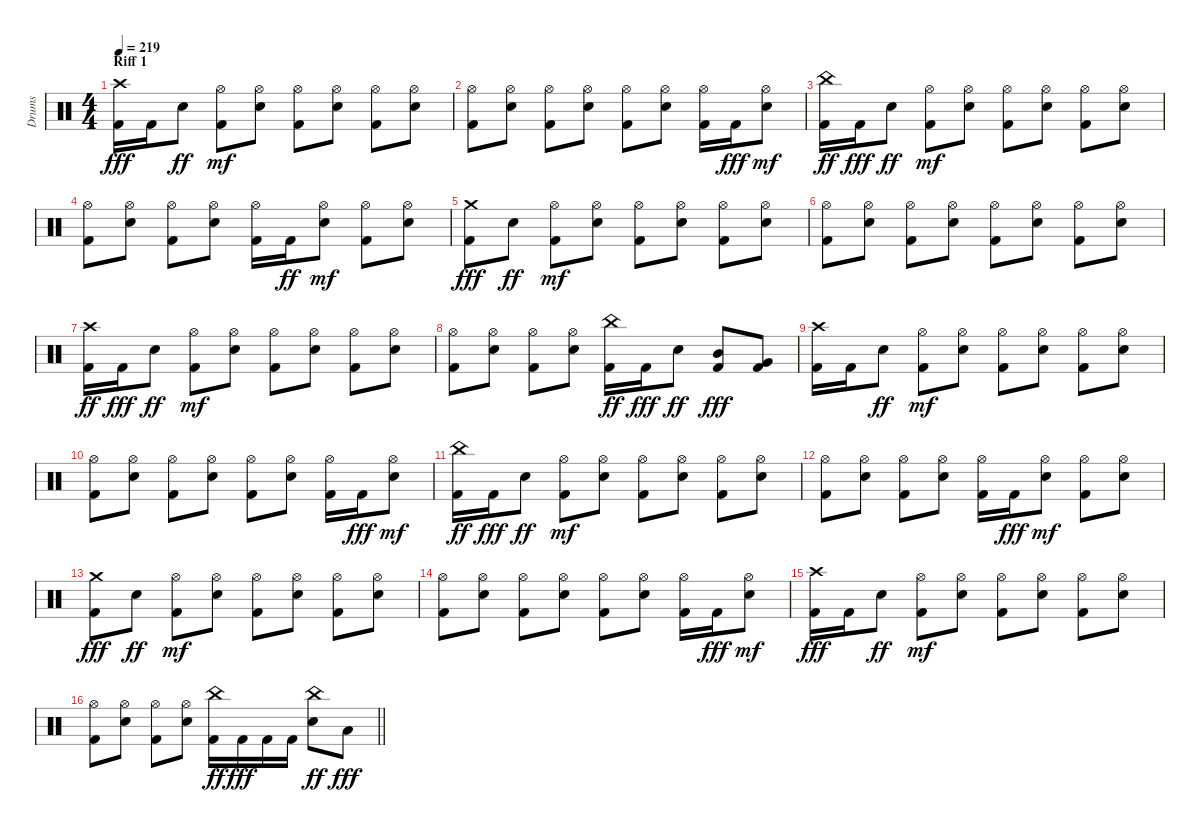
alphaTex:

\track ("Drums" "Drums") {instrument percussion}
\staff {score}
\articulation defaults
\ts (4 4)
\section ("" "Riff 1")
\tempo 219
\clef neutral
\ks c
("Kick (hit) 2" "Crash high (hit)").16{dy fff} "Kick (hit) 2".16 "Snare (hit) 2".8{dy ff} ("Kick (hit) 2" "Hi-Hat (open)").8{dy mf} ("Snare (hit) 2" "Hi-Hat (open)").8 ("Kick (hit) 2" "Hi-Hat (open)").8 ("Snare (hit) 2" "Hi-Hat (open)").8 ("Kick (hit) 2" "Hi-Hat (open)").8 ("Snare (hit) 2" "Hi-Hat (open)").8 |
("Kick (hit) 2" "Hi-Hat (open)").8 ("Snare (hit) 2" "Hi-Hat (open)").8 ("Kick (hit) 2" "Hi-Hat (open)").8 ("Snare (hit) 2" "Hi-Hat (open)").8 ("Kick (hit) 2" "Hi-Hat (open)").8 ("Snare (hit) 2" "Hi-Hat (open)").8 ("Kick (hit) 2" "Hi-Hat (open)").16 "Kick (hit) 2".16{dy fff} ("Snare (hit) 2" "Hi-Hat (open)").8{dy mf} |
("Kick (hit) 2" "China (hit)").16{dy ff} "Kick (hit) 2".16{dy fff} "Snare (hit) 2".8{dy ff} ("Kick (hit) 2" "Hi-Hat (open)").8{dy mf} ("Snare (hit) 2" "Hi-Hat (open)").8 ("Kick (hit) 2" "Hi-Hat (open)").8 ("Snare (hit) 2" "Hi-Hat (open)").8 ("Kick (hit) 2" "Hi-Hat (open)").8 ("Snare (hit) 2" "Hi-Hat (open)").8 |
("Kick (hit) 2" "Hi-Hat (open)").8 ("Snare (hit) 2" "Hi-Hat (open)").8 ("Kick (hit) 2" "Hi-Hat (open)").8 ("Snare (hit) 2" "Hi-Hat (open)").8 ("Kick (hit) 2" "Hi-Hat (open)").16 "Kick (hit) 2".16{dy ff} ("Snare (hit) 2" "Hi-Hat (open)").8{dy mf} ("Kick (hit) 2" "Hi-Hat (open)").8 ("Snare (hit) 2" "Hi-Hat (open)").8 |
("Kick (hit) 2" "Crash medium (hit)").8{dy fff} "Snare (hit) 2".8{dy ff} ("Kick (hit) 2" "Hi-Hat (open)").8{dy mf} ("Snare (hit) 2" "Hi-Hat (open)").8 ("Kick (hit) 2" "Hi-Hat (open)").8 ("Snare (hit) 2" "Hi-Hat (open)").8 ("Kick (hit) 2" "Hi-Hat (open)").8 ("Snare (hit) 2" "Hi-Hat (open)").8 |
("Kick (hit) 2" "Hi-Hat (open)").8 ("Snare (hit) 2" "Hi-Hat (open)").8 ("Kick (hit) 2" "Hi-Hat (open)").8 ("Snare (hit) 2" "Hi-Hat (open)").8 ("Kick (hit) 2" "Hi-Hat (open)").8 ("Snare (hit) 2" "Hi-Hat (open)").8 ("Kick (hit) 2" "Hi-Hat (open)").8 ("Snare (hit) 2" "Hi-Hat (open)").8 |
("Kick (hit) 2" "Crash high (hit)").16{dy ff} "Kick (hit) 2".16{dy fff} "Snare (hit) 2".8{dy ff} ("Kick (hit) 2" "Hi-Hat (open)").8{dy mf} ("Snare (hit) 2" "Hi-Hat (open)").8 ("Kick (hit) 2" "Hi-Hat (open)").8 ("Snare (hit) 2" "Hi-Hat (open)").8 ("Kick (hit) 2" "Hi-Hat (open)").8 ("Snare (hit) 2" "Hi-Hat (open)").8 |
("Kick (hit) 2" "Hi-Hat (open)").8 ("Snare (hit) 2" "Hi-Hat (open)").8 ("Kick (hit) 2" "Hi-Hat (open)").8 ("Snare (hit) 2" "Hi-Hat (open)").8 ("Kick (hit) 2" "China (hit)").16{dy ff} "Kick (hit) 2".16{dy fff} "Snare (hit) 2".8{dy ff} ("Kick (hit) 2" "Mid Tom (hit)").8{dy fff} ("Kick (hit) 2" "Very Low Tom (hit)").8 |
("Kick (hit) 2" "Crash high (hit)").16 "Kick (hit) 2".16 "Snare (hit) 2".8{dy ff} ("Kick (hit) 2" "Hi-Hat (open)").8{dy mf} ("Snare (hit) 2" "Hi-Hat (open)").8 ("Kick (hit) 2" "Hi-Hat (open)").8 ("Snare (hit) 2" "Hi-Hat (open)").8 ("Kick (hit) 2" "Hi-Hat (open)").8 ("Snare (hit) 2" "Hi-Hat (open)").8 |
("Kick (hit) 2" "Hi-Hat (open)").8 ("Snare (hit) 2" "Hi-Hat (open)").8 ("Kick (hit) 2" "Hi-Hat (open)").8 ("Snare (hit) 2" "Hi-Hat (open)").8 ("Kick (hit) 2" "Hi-Hat (open)").8 ("Snare (hit) 2" "Hi-Hat (open)").8 ("Kick (hit) 2" "Hi-Hat (open)").16 "Kick (hit) 2".16{dy fff} ("Snare (hit) 2" "Hi-Hat (open)").8{dy mf} |
("Kick (hit) 2" "China (hit)").16{dy ff} "Kick (hit) 2".16{dy fff} "Snare (hit) 2".8{dy ff} ("Kick (hit) 2" "Hi-Hat (open)").8{dy mf} ("Snare (hit) 2" "Hi-Hat (open)").8 ("Kick (hit) 2" "Hi-Hat (open)").8 ("Snare (hit) 2" "Hi-Hat (open)").8 ("Kick (hit) 2" "Hi-Hat (open)").8 ("Snare (hit) 2" "Hi-Hat (open)").8 |
("Kick (hit) 2" "Hi-Hat (open)").8 ("Snare (hit) 2" "Hi-Hat (open)").8 ("Kick (hit) 2" "Hi-Hat (open)").8 ("Snare (hit) 2" "Hi-Hat (open)").8 ("Kick (hit) 2" "Hi-Hat (open)").16 "Kick (hit) 2".16{dy fff} ("Snare (hit) 2" "Hi-Hat (open)").8{dy mf} ("Kick (hit) 2" "Hi-Hat (open)").8 ("Snare (hit) 2" "Hi-Hat (open)").8 |
("Kick (hit) 2" "Crash medium (hit)").8{dy fff} "Snare (hit) 2".8{dy ff} ("Kick (hit) 2" "Hi-Hat (open)").8{dy mf} ("Snare (hit) 2" "Hi-Hat (open)").8 ("Kick (hit) 2" "Hi-Hat (open)").8 ("Snare (hit) 2" "Hi-Hat (open)").8 ("Kick (hit) 2" "Hi-Hat (open)").8 ("Snare (hit) 2" "Hi-Hat (open)").8 |
("Kick (hit) 2" "Hi-Hat (open)").8 ("Snare (hit) 2" "Hi-Hat (open)").8 ("Kick (hit) 2" "Hi-Hat (open)").8 ("Snare (hit) 2" "Hi-Hat (open)").8 ("Kick (hit) 2" "Hi-Hat (open)").8 ("Snare (hit) 2" "Hi-Hat (open)").8 ("Kick (hit) 2" "Hi-Hat (open)").16 "Kick (hit) 2".16{dy fff} ("Snare (hit) 2" "Hi-Hat (open)").8{dy mf} |
("Kick (hit) 2" "Crash high (hit)").16{dy fff} "Kick (hit) 2".16 "Snare (hit) 2".8{dy ff} ("Kick (hit) 2" "Hi-Hat (open)").8{dy mf} ("Snare (hit) 2" "Hi-Hat (open)").8 ("Kick (hit) 2" "Hi-Hat (open)").8 ("Snare (hit) 2" "Hi-Hat (open)").8 ("Kick (hit) 2" "Hi-Hat (open)").8 ("Snare (hit) 2" "Hi-Hat (open)").8 |
\barLineRight lightlight
("Kick (hit) 2" "Hi-Hat (open)").8 ("Snare (hit) 2" "Hi-Hat (open)").8 ("Kick (hit) 2" "Hi-Hat (open)").8 ("Snare (hit) 2" "Hi-Hat (open)").8 ("Kick (hit) 2" "China (hit)").16{dy ff} "Kick (hit) 2".16{dy fff} "Kick (hit) 2".16 "Kick (hit) 2".16 ("Snare (hit) 2" "China (hit)").8{dy ff} "Low Tom (hit)".8{dy fff}
